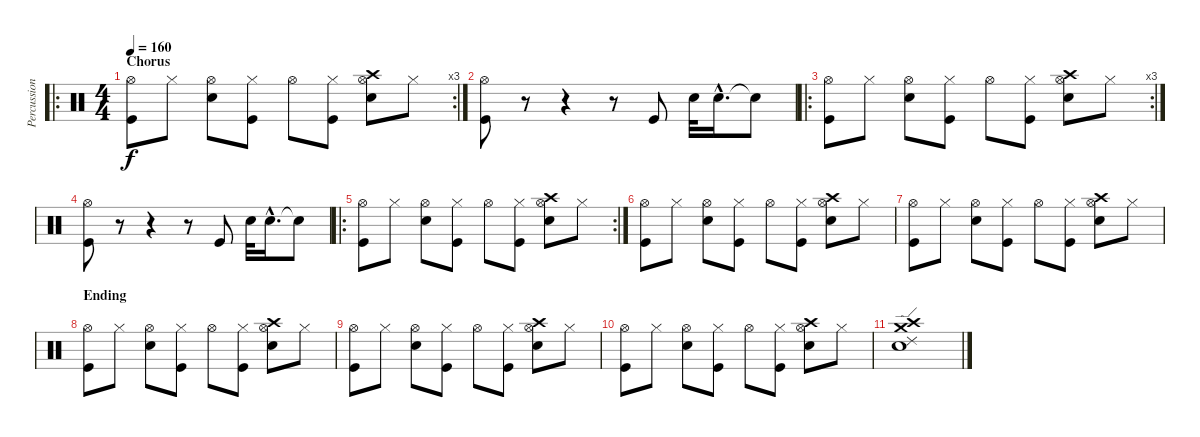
\track ("Percussions" "Percussion") {instrument percussion}
\staff {score}
\articulation defaults
\ro
\rc 3
\ts (4 4)
\section ("" "Chorus")
\tempo 160
\clef neutral
\ks c
("Hi-Hat (open)" "Kick (hit)").8{dy f} "Hi-Hat (closed)".8 ("Hi-Hat (open)" "Snare (hit) 2").8 ("Hi-Hat (closed)" "Kick (hit)").8 "Hi-Hat (open)".8 ("Hi-Hat (closed)" "Kick (hit)").8 ("Hi-Hat (open)" "Snare (hit) 2" "Crash high (hit)").8 "Hi-Hat (closed)".8 |
("Hi-Hat (open)" "Kick (hit)").8 r.8 r.4 r.8 "Kick (hit)".8 "Snare (hit) 2".32 "Snare (hit) 2"{hac}.16{d} "Snare (hit)"{t}.8 |
\ro
\rc 3
("Hi-Hat (open)" "Kick (hit)").8 "Hi-Hat (closed)".8 ("Hi-Hat (open)" "Snare (hit) 2").8 ("Hi-Hat (closed)" "Kick (hit)").8 "Hi-Hat (open)".8 ("Hi-Hat (closed)" "Kick (hit)").8 ("Hi-Hat (open)" "Snare (hit) 2" "Crash high (hit)").8 "Hi-Hat (closed)".8 |
("Hi-Hat (open)" "Kick (hit)").8 r.8 r.4 r.8 "Kick (hit)".8 "Snare (hit) 2".32 "Snare (hit) 2"{hac}.16{d} "Snare (hit)"{t}.8 |
\ro
\rc 2
("Hi-Hat (open)" "Kick (hit)").8 "Hi-Hat (closed)".8 ("Hi-Hat (open)" "Snare (hit) 2").8 ("Hi-Hat (closed)" "Kick (hit)").8 "Hi-Hat (open)".8 ("Hi-Hat (closed)" "Kick (hit)").8 ("Hi-Hat (open)" "Snare (hit) 2" "Crash high (hit)").8 "Hi-Hat (closed)".8 |
("Hi-Hat (open)" "Kick (hit)").8 "Hi-Hat (closed)".8 ("Hi-Hat (open)" "Snare (hit) 2").8 ("Hi-Hat (closed)" "Kick (hit)").8 "Hi-Hat (open)".8 ("Hi-Hat (closed)" "Kick (hit)").8 ("Hi-Hat (open)" "Snare (hit) 2" "Crash high (hit)").8 "Hi-Hat (closed)".8 |
("Hi-Hat (open)" "Kick (hit)").8 "Hi-Hat (closed)".8 ("Hi-Hat (open)" "Snare (hit) 2").8 ("Hi-Hat (closed)" "Kick (hit)").8 "Hi-Hat (open)".8 ("Hi-Hat (closed)" "Kick (hit)").8 ("Hi-Hat (open)" "Snare (hit) 2" "Crash high (hit)").8 "Hi-Hat (closed)".8 |
\section ("" "Ending")
("Hi-Hat (open)" "Kick (hit)").8 "Hi-Hat (closed)".8 ("Hi-Hat (open)" "Snare (hit) 2").8 ("Hi-Hat (closed)" "Kick (hit)").8 "Hi-Hat (open)".8 ("Hi-Hat (closed)" "Kick (hit)").8 ("Hi-Hat (open)" "Snare (hit) 2" "Crash high (hit)").8 "Hi-Hat (closed)".8 |
("Hi-Hat (open)" "Kick (hit)").8 "Hi-Hat (closed)".8 ("Hi-Hat (open)" "Snare (hit) 2").8 ("Hi-Hat (closed)" "Kick (hit)").8 "Hi-Hat (open)".8 ("Hi-Hat (closed)" "Kick (hit)").8 ("Hi-Hat (open)" "Snare (hit) 2" "Crash high (hit)").8 "Hi-Hat (closed)".8 |
("Hi-Hat (open)" "Kick (hit)").8 "Hi-Hat (closed)".8 ("Hi-Hat (open)" "Snare (hit) 2").8 ("Hi-Hat (closed)" "Kick (hit)").8 "Hi-Hat (open)".8 ("Hi-Hat (closed)" "Kick (hit)").8 ("Hi-Hat (open)" "Snare (hit) 2" "Crash high (hit)").8 "Hi-Hat (closed)".8 |
("Snare (hit) 2" "Crash high (hit)" "Crash medium (hit)" "Ride (edge) 2").1
